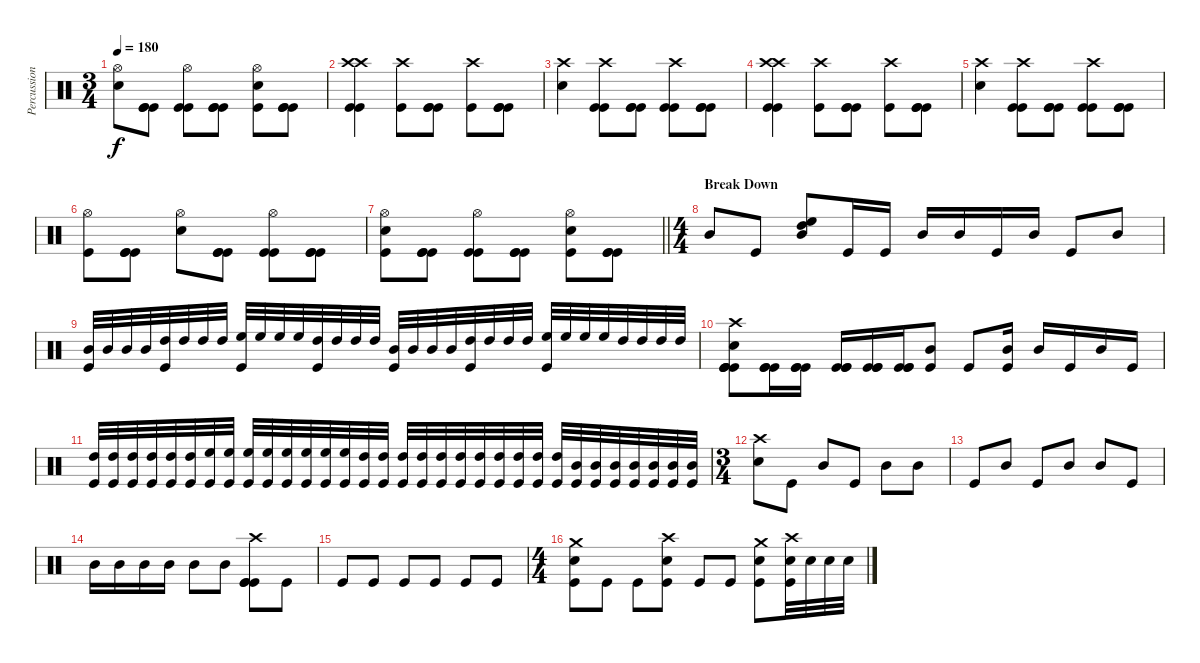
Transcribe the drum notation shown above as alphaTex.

\track ("Percussion" "Percussion") {instrument percussion}
\staff {score}
\articulation defaults
\ts (3 4)
\tempo 180
\clef neutral
\ks c
("Hi-Hat (open)" "Electric Snare (hit)").8{dy f} ("Kick (hit)" "Kick (hit)" "Kick (hit)").8 ("Hi-Hat (open)" "Kick (hit)" "Kick (hit)").8 ("Kick (hit)" "Kick (hit)" "Kick (hit)").8 ("Hi-Hat (open)" "Kick (hit)" "Electric Snare (hit)").8 ("Kick (hit)" "Kick (hit)" "Kick (hit)").8 |
("Kick (hit)" "Crash high (hit)" "Crash high (hit)" "Kick (hit)").4 ("Crash high (hit)" "Kick (hit)").8 ("Kick (hit)" "Kick (hit)" "Kick (hit)").8 ("Crash high (hit)" "Kick (hit)").8 ("Kick (hit)" "Kick (hit)" "Kick (hit)").8 |
("Crash high (hit)" "Electric Snare (hit)").4 ("Crash high (hit)" "Kick (hit)" "Kick (hit)").8 ("Kick (hit)" "Kick (hit)" "Kick (hit)").8 ("Crash high (hit)" "Kick (hit)" "Kick (hit)").8 ("Kick (hit)" "Kick (hit)" "Kick (hit)").8 |
("Kick (hit)" "Crash high (hit)" "Crash high (hit)" "Kick (hit)").4 ("Crash high (hit)" "Kick (hit)").8 ("Kick (hit)" "Kick (hit)" "Kick (hit)").8 ("Crash high (hit)" "Kick (hit)").8 ("Kick (hit)" "Kick (hit)" "Kick (hit)").8 |
("Crash high (hit)" "Electric Snare (hit)").4 ("Crash high (hit)" "Kick (hit)" "Kick (hit)").8 ("Kick (hit)" "Kick (hit)" "Kick (hit)").8 ("Crash high (hit)" "Kick (hit)" "Kick (hit)").8 ("Kick (hit)" "Kick (hit)" "Kick (hit)").8 |
("Hi-Hat (open)" "Kick (hit)").8 ("Kick (hit)" "Kick (hit)" "Kick (hit)").8 ("Hi-Hat (open)" "Electric Snare (hit)").8 ("Kick (hit)" "Kick (hit)" "Kick (hit)").8 ("Hi-Hat (open)" "Kick (hit)" "Kick (hit)").8 ("Kick (hit)" "Kick (hit)" "Kick (hit)").8 |
\barLineRight lightlight
("Hi-Hat (open)" "Electric Snare (hit)" "Kick (hit)").8 ("Kick (hit)" "Kick (hit)" "Kick (hit)").8 ("Hi-Hat (open)" "Kick (hit)" "Kick (hit)").8 ("Kick (hit)" "Kick (hit)" "Kick (hit)").8 ("Hi-Hat (open)" "Electric Snare (hit)" "Kick (hit)").8 ("Kick (hit)" "Kick (hit)" "Kick (hit)").8 |
\ts (4 4)
\section ("" "Break Down")
"Mid Tom (hit)".8 "Kick (hit)".8 ("High Floor Tom (hit)" "High Tom (hit)" "Mid Tom (hit)").8 "Kick (hit)".16 "Kick (hit)".16 "Mid Tom (hit)".16 "Mid Tom (hit)".16 "Kick (hit)".16 "Mid Tom (hit)".16 "Kick (hit)".8 "Mid Tom (hit)".8 |
("Mid Tom (hit)" "Kick (hit)").32 "Mid Tom (hit)".32 "Mid Tom (hit)".32 "Mid Tom (hit)".32 ("High Tom (hit)" "Kick (hit)").32 "High Tom (hit)".32 "High Tom (hit)".32 "High Tom (hit)".32 ("High Floor Tom (hit)" "Kick (hit)").32 "High Floor Tom (hit)".32 "High Floor Tom (hit)".32 "High Floor Tom (hit)".32 ("High Tom (hit)" "Kick (hit)").32 "High Tom (hit)".32 "High Tom (hit)".32 "High Tom (hit)".32 ("Mid Tom (hit)" "Kick (hit)").32 "Mid Tom (hit)".32 "Mid Tom (hit)".32 "Mid Tom (hit)".32 ("High Tom (hit)" "Kick (hit)").32 "High Tom (hit)".32 "High Tom (hit)".32 "High Tom (hit)".32 ("High Floor Tom (hit)" "Kick (hit)").32 "High Floor Tom (hit)".32 "High Floor Tom (hit)".32 "High Floor Tom (hit)".32 "High Tom (hit)".32 "High Tom (hit)".32 "High Tom (hit)".32 "High Tom (hit)".32 |
("Kick (hit)" "Kick (hit)" "Kick (hit)" "Kick (hit)" "Electric Snare (hit)" "Crash high (hit)").8 ("Kick (hit)" "Kick (hit)" "Kick (hit)").16 ("Kick (hit)" "Kick (hit)" "Kick (hit)").16 ("Kick (hit)" "Kick (hit)" "Kick (hit)").16 ("Kick (hit)" "Kick (hit)" "Kick (hit)").16 ("Kick (hit)" "Kick (hit)" "Kick (hit)").16 ("Mid Tom (hit)" "Kick (hit)").8 "Kick (hit)".8 ("Mid Tom (hit)" "Kick (hit)").16 "Mid Tom (hit)".16 "Kick (hit)".16 "Mid Tom (hit)".16 "Kick (hit)".16 |
("High Tom (hit)" "Kick (hit)").32 ("High Tom (hit)" "Kick (hit)").32 ("High Tom (hit)" "Kick (hit)").32 ("High Tom (hit)" "Kick (hit)").32 ("High Tom (hit)" "Kick (hit)").32 ("High Tom (hit)" "Kick (hit)").32 ("High Floor Tom (hit)" "Kick (hit)").32 ("High Floor Tom (hit)" "Kick (hit)").32 ("High Floor Tom (hit)" "Kick (hit)").32 ("High Floor Tom (hit)" "Kick (hit)").32 ("High Floor Tom (hit)" "Kick (hit)").32 ("High Floor Tom (hit)" "Kick (hit)").32 ("High Floor Tom (hit)" "Kick (hit)").32 ("High Floor Tom (hit)" "Kick (hit)").32 ("High Tom (hit)" "Kick (hit)").32 ("High Tom (hit)" "Kick (hit)").32 ("High Tom (hit)" "Kick (hit)").32 ("High Tom (hit)" "Kick (hit)").32 ("High Tom (hit)" "Kick (hit)").32 ("High Tom (hit)" "Kick (hit)").32 ("High Tom (hit)" "Kick (hit)").32 ("High Tom (hit)" "Kick (hit)").32 ("High Tom (hit)" "Kick (hit)").32 ("High Tom (hit)" "Kick (hit)").32 ("High Tom (hit)" "Kick (hit)").32 ("Mid Tom (hit)" "Kick (hit)").32 ("Mid Tom (hit)" "Kick (hit)").32 ("Mid Tom (hit)" "Kick (hit)").32 ("Mid Tom (hit)" "Kick (hit)").32 ("Mid Tom (hit)" "Kick (hit)").32 ("Mid Tom (hit)" "Kick (hit)").32 ("Mid Tom (hit)" "Kick (hit)").32 |
\ts (3 4)
("Electric Snare (hit)" "Crash high (hit)").8 "Kick (hit)".8 "Mid Tom (hit)".8 "Kick (hit)".8 "Mid Tom (hit)".8 "Mid Tom (hit)".8 |
"Kick (hit)".8 "Mid Tom (hit)".8 "Kick (hit)".8 "Mid Tom (hit)".8 "Mid Tom (hit)".8 "Kick (hit)".8 |
"Mid Tom (hit)".16 "Mid Tom (hit)".16 "Mid Tom (hit)".16 "Mid Tom (hit)".16 "Mid Tom (hit)".8 "Mid Tom (hit)".8 ("Kick (hit)" "Kick (hit)" "Crash high (hit)" "Kick (hit)").8 "Kick (hit)".8 |
"Kick (hit)".8 "Kick (hit)".8 "Kick (hit)".8 "Kick (hit)".8 "Kick (hit)".8 "Kick (hit)".8 |
\ts (4 4)
("Crash medium (hit)" "Electric Snare (hit)" "Kick (hit)").8 "Kick (hit)".8 "Kick (hit)".8 ("Crash high (hit)" "Electric Snare (hit)" "Kick (hit)").8 "Kick (hit)".8 "Kick (hit)".8 ("Crash medium (hit)" "Electric Snare (hit)" "Kick (hit)").8 ("Crash high (hit)" "Electric Snare (hit)" "Kick (hit)").32 "Electric Snare (hit)".32 "Electric Snare (hit)".32 "Electric Snare (hit)".32
